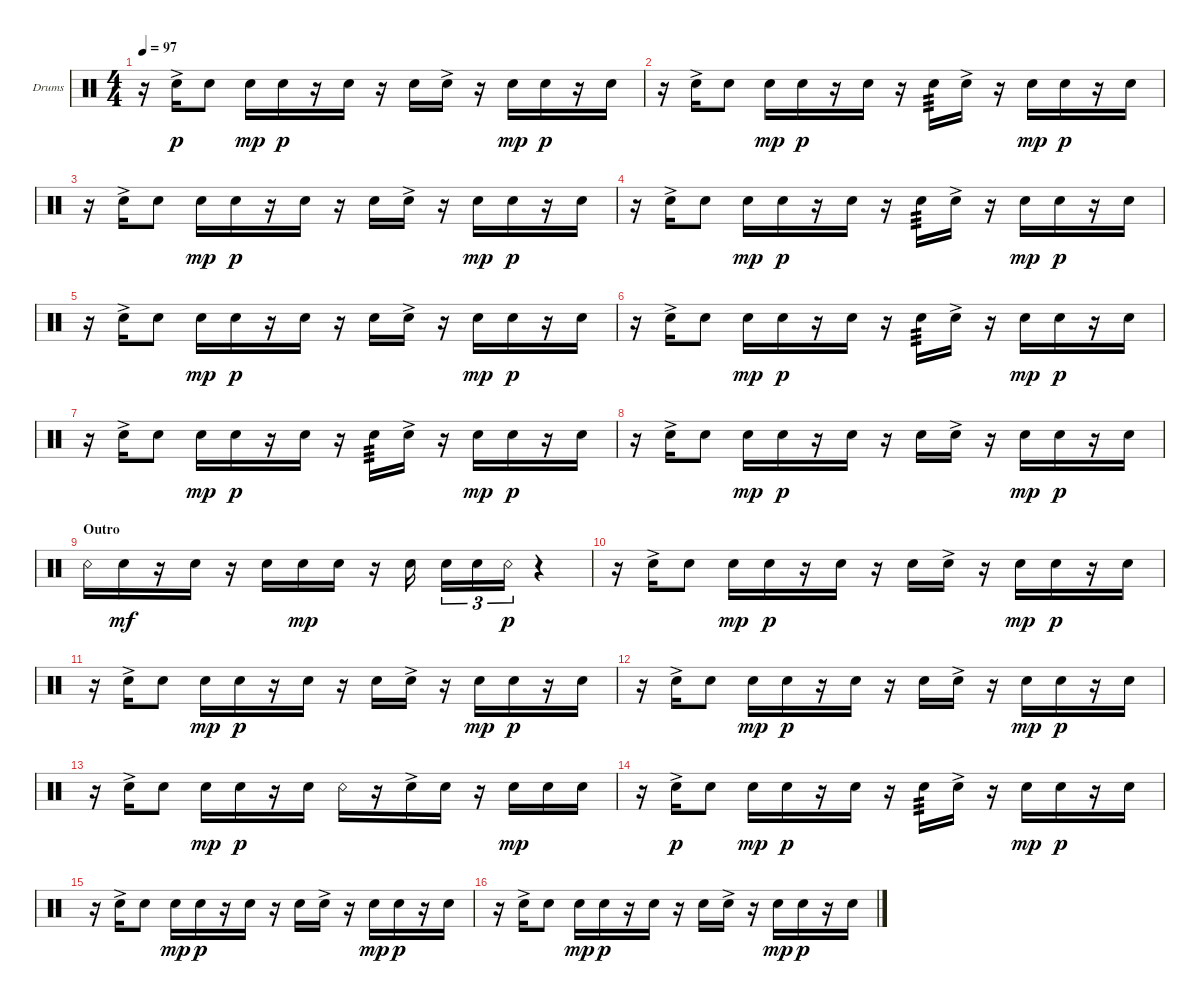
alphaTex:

\bracketExtendMode groupsimilarinstruments
\firstSystemTrackNameOrientation horizontal
\otherSystemsTrackNameOrientation horizontal
\track ("Snare" "Drums") {instrument percussion}
\staff {score}
\articulation defaults
\ts (4 4)
\tempo 97
\clef neutral
\ks c
r.16{dy p} "Snare (hit) 2"{ac}.16 "Snare (hit) 2".8 "Snare (hit) 2".16{dy mp} "Snare (hit) 2".16{dy p} r.16 "Snare (hit) 2".16 r.16 "Snare (hit) 2".16 "Snare (hit) 2"{ac}.16 r.16 "Snare (hit) 2".16{dy mp} "Snare (hit) 2".16{dy p} r.16 "Snare (hit) 2".16 |
r.16 "Snare (hit) 2"{ac}.16 "Snare (hit) 2".8 "Snare (hit) 2".16{dy mp} "Snare (hit) 2".16{dy p} r.16 "Snare (hit) 2".16 r.16 "Snare (hit) 2".16{tp 3} "Snare (hit) 2"{ac}.16 r.16 "Snare (hit) 2".16{dy mp} "Snare (hit) 2".16{dy p} r.16 "Snare (hit) 2".16 |
r.16 "Snare (hit) 2"{ac}.16 "Snare (hit) 2".8 "Snare (hit) 2".16{dy mp} "Snare (hit) 2".16{dy p} r.16 "Snare (hit) 2".16 r.16 "Snare (hit) 2".16 "Snare (hit) 2"{ac}.16 r.16 "Snare (hit) 2".16{dy mp} "Snare (hit) 2".16{dy p} r.16 "Snare (hit) 2".16 |
r.16 "Snare (hit) 2"{ac}.16 "Snare (hit) 2".8 "Snare (hit) 2".16{dy mp} "Snare (hit) 2".16{dy p} r.16 "Snare (hit) 2".16 r.16 "Snare (hit) 2".16{tp 3} "Snare (hit) 2"{ac}.16 r.16 "Snare (hit) 2".16{dy mp} "Snare (hit) 2".16{dy p} r.16 "Snare (hit) 2".16 |
r.16 "Snare (hit) 2"{ac}.16 "Snare (hit) 2".8 "Snare (hit) 2".16{dy mp} "Snare (hit) 2".16{dy p} r.16 "Snare (hit) 2".16 r.16 "Snare (hit) 2".16 "Snare (hit) 2"{ac}.16 r.16 "Snare (hit) 2".16{dy mp} "Snare (hit) 2".16{dy p} r.16 "Snare (hit) 2".16 |
r.16 "Snare (hit) 2"{ac}.16 "Snare (hit) 2".8 "Snare (hit) 2".16{dy mp} "Snare (hit) 2".16{dy p} r.16 "Snare (hit) 2".16 r.16 "Snare (hit) 2".16{tp 3} "Snare (hit) 2"{ac}.16 r.16 "Snare (hit) 2".16{dy mp} "Snare (hit) 2".16{dy p} r.16 "Snare (hit) 2".16 |
r.16 "Snare (hit) 2"{ac}.16 "Snare (hit) 2".8 "Snare (hit) 2".16{dy mp} "Snare (hit) 2".16{dy p} r.16 "Snare (hit) 2".16 r.16 "Snare (hit) 2".16{tp 3} "Snare (hit) 2"{ac}.16 r.16 "Snare (hit) 2".16{dy mp} "Snare (hit) 2".16{dy p} r.16 "Snare (hit) 2".16 |
r.16 "Snare (hit) 2"{ac}.16 "Snare (hit) 2".8 "Snare (hit) 2".16{dy mp} "Snare (hit) 2".16{dy p} r.16 "Snare (hit) 2".16 r.16 "Snare (hit) 2".16 "Snare (hit) 2"{ac}.16 r.16 "Snare (hit) 2".16{dy mp} "Snare (hit) 2".16{dy p} r.16 "Snare (hit) 2".16 |
\section ("" "Outro")
"Snare (rim shot)".16 "Snare (hit) 2".16{dy mf} r.16 "Snare (hit) 2".16 r.16 "Snare (hit) 2".16 "Snare (hit) 2".16{dy mp} "Snare (hit) 2".16 r.16 "Snare (hit) 2".16 "Snare (hit) 2".16{tu (3 2)} "Snare (hit) 2".16{tu (3 2)} "Snare (rim shot)".16{tu (3 2) dy p} r.4 |
r.16 "Snare (hit) 2"{ac}.16 "Snare (hit) 2".8 "Snare (hit) 2".16{dy mp} "Snare (hit) 2".16{dy p} r.16 "Snare (hit) 2".16 r.16 "Snare (hit) 2".16 "Snare (hit) 2"{ac}.16 r.16 "Snare (hit) 2".16{dy mp} "Snare (hit) 2".16{dy p} r.16 "Snare (hit) 2".16 |
r.16 "Snare (hit) 2"{ac}.16 "Snare (hit) 2".8 "Snare (hit) 2".16{dy mp} "Snare (hit) 2".16{dy p} r.16 "Snare (hit) 2".16 r.16 "Snare (hit) 2".16 "Snare (hit) 2"{ac}.16 r.16 "Snare (hit) 2".16{dy mp} "Snare (hit) 2".16{dy p} r.16 "Snare (hit) 2".16 |
r.16 "Snare (hit) 2"{ac}.16 "Snare (hit) 2".8 "Snare (hit) 2".16{dy mp} "Snare (hit) 2".16{dy p} r.16 "Snare (hit) 2".16 r.16 "Snare (hit) 2".16 "Snare (hit) 2"{ac}.16 r.16 "Snare (hit) 2".16{dy mp} "Snare (hit) 2".16{dy p} r.16 "Snare (hit) 2".16 |
r.16 "Snare (hit) 2"{ac}.16 "Snare (hit) 2".8 "Snare (hit) 2".16{dy mp} "Snare (hit) 2".16{dy p} r.16 "Snare (hit) 2".16 "Snare (rim shot)".16 r.16 "Snare (hit) 2"{ac}.16 "Snare (hit) 2".16 r.16 "Snare (hit) 2".16{dy mp} "Snare (hit) 2".16 "Snare (hit) 2".16 |
r.16 "Snare (hit) 2"{ac}.16{dy p} "Snare (hit) 2".8 "Snare (hit) 2".16{dy mp} "Snare (hit) 2".16{dy p} r.16 "Snare (hit) 2".16 r.16 "Snare (hit) 2".16{tp 3} "Snare (hit) 2"{ac}.16 r.16 "Snare (hit) 2".16{dy mp} "Snare (hit) 2".16{dy p} r.16 "Snare (hit) 2".16 |
r.16 "Snare (hit) 2"{ac}.16 "Snare (hit) 2".8 "Snare (hit) 2".16{dy mp} "Snare (hit) 2".16{dy p} r.16 "Snare (hit) 2".16 r.16 "Snare (hit) 2".16 "Snare (hit) 2"{ac}.16 r.16 "Snare (hit) 2".16{dy mp} "Snare (hit) 2".16{dy p} r.16 "Snare (hit) 2".16 |
r.16 "Snare (hit) 2"{ac}.16 "Snare (hit) 2".8 "Snare (hit) 2".16{dy mp} "Snare (hit) 2".16{dy p} r.16 "Snare (hit) 2".16 r.16 "Snare (hit) 2".16 "Snare (hit) 2"{ac}.16 r.16 "Snare (hit) 2".16{dy mp} "Snare (hit) 2".16{dy p} r.16 "Snare (hit) 2".16
